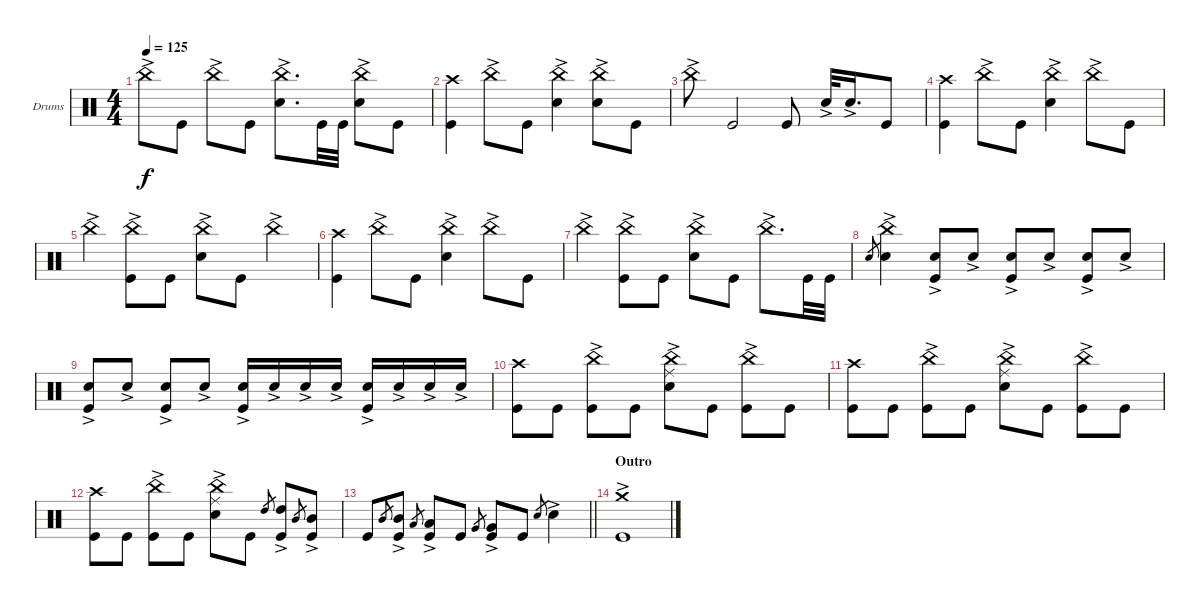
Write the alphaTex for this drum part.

\bracketExtendMode groupsimilarinstruments
\firstSystemTrackNameOrientation horizontal
\otherSystemsTrackNameOrientation horizontal
\track ("Drumkit" "Drums") {instrument percussion}
\staff {score}
\articulation defaults
\ts (4 4)
\tempo 125
\clef neutral
\ks c "China (hit)"{ac}.8{dy f} "Kick (hit)".8 "China (hit)"{ac}.8 "Kick (hit)".8
("China (hit)"{ac} "Snare (hit) 2"{ac}).8{d} "Kick (hit)".32 "Kick (hit)".32 ("China (hit)"{ac} "Snare (hit) 2"{ac}).8 "Kick (hit)".8 |
("Crash high (hit)" "Kick (hit)").4 "China (hit)"{ac}.8 "Kick (hit)".8 ("China (hit)"{ac} "Snare (hit) 2"{ac}).4 ("China (hit)"{ac} "Snare (hit) 2"{ac}).8 "Kick (hit)".8 |
"China (hit)"{ac}.8 "Kick (hit)".2 "Kick (hit)".8 "Snare (hit) 2"{ac}.32 "Snare (hit) 2"{ac}.16{d} "Kick (hit)".8 |
("Crash high (hit)" "Kick (hit)").4 "China (hit)"{ac}.8 "Kick (hit)".8 ("China (hit)"{ac} "Snare (hit) 2"{ac}).4 "China (hit)"{ac}.8 "Kick (hit)".8 |
"China (hit)"{ac}.4 ("China (hit)"{ac} "Kick (hit)").8 "Kick (hit)".8 ("China (hit)"{ac} "Snare (hit) 2"{ac}).8 "Kick (hit)".8 "China (hit)"{ac}.4 |
("Crash high (hit)" "Kick (hit)").4 "China (hit)"{ac}.8 "Kick (hit)".8 ("China (hit)"{ac} "Snare (hit) 2"{ac}).4 "China (hit)"{ac}.8 "Kick (hit)".8 |
"China (hit)"{ac}.4 ("China (hit)"{ac} "Kick (hit)").8 "Kick (hit)".8 ("China (hit)"{ac} "Snare (hit) 2"{ac}).8 "Kick (hit)".8 "China (hit)"{ac}.8{d} "Kick (hit)".32 "Kick (hit)".32 |
"Snare (hit) 2".8{gr} ("China (hit)"{ac} "Snare (hit) 2"{ac}).4 ("Snare (hit) 2"{ac} "Kick (hit)").8 "Snare (hit) 2"{ac}.8 ("Snare (hit) 2"{ac} "Kick (hit)").8 "Snare (hit) 2"{ac}.8 ("Snare (hit) 2"{ac} "Kick (hit)").8 "Snare (hit) 2"{ac}.8 |
("Snare (hit) 2"{ac} "Kick (hit)").8 "Snare (hit) 2"{ac}.8 ("Snare (hit) 2"{ac} "Kick (hit)").8 "Snare (hit) 2"{ac}.8 ("Snare (hit) 2"{ac} "Kick (hit)").16 "Snare (hit) 2"{ac}.16 "Snare (hit) 2"{ac}.16 "Snare (hit) 2"{ac}.16 ("Snare (hit) 2"{ac} "Kick (hit)").16 "Snare (hit) 2"{ac}.16 "Snare (hit) 2"{ac}.16 "Snare (hit) 2"{ac}.16 |
("Crash high (hit)" "Kick (hit)").8 "Kick (hit)".8 ("China (hit)"{ac} "Kick (hit)").8 "Kick (hit)".8 ("China (hit)"{ac} "Ride (middle)"{ac} "Snare (hit) 2"{ac}).8 "Kick (hit)".8 ("China (hit)"{ac} "Kick (hit)").8 "Kick (hit)".8 |
("Crash high (hit)" "Kick (hit)").8 "Kick (hit)".8 ("China (hit)"{ac} "Kick (hit)").8 "Kick (hit)".8 ("China (hit)"{ac} "Ride (middle)"{ac} "Snare (hit) 2"{ac}).8 "Kick (hit)".8 ("China (hit)"{ac} "Kick (hit)").8 "Kick (hit)".8 |
("Crash high (hit)" "Kick (hit)").8 "Kick (hit)".8 ("China (hit)"{ac} "Kick (hit)").8 "Kick (hit)".8 ("China (hit)"{ac} "Ride (middle)"{ac} "Snare (hit) 2"{ac}).8 "Kick (hit)".8 "High Tom (hit)".8{gr} ("Kick (hit)" "High Tom (hit)"{ac}).8 "Mid Tom (hit)".8{gr} ("Kick (hit)" "Mid Tom (hit)"{ac}).8 |
\barLineRight lightlight "Kick (hit)".8 "Mid Tom (hit)".8{gr}
("Kick (hit)" "Mid Tom (hit)"{ac}).8 "Low Tom (hit)".8{gr} ("Kick (hit)" "Low Tom (hit)"{ac}).8 "Kick (hit)".8 "Very Low Tom (hit)".8{gr} ("Kick (hit)" "Very Low Tom (hit)"{ac}).8 "Kick (hit)".8 "Snare (hit) 2".8{gr} "Snare (hit) 2"{ac}.4 |
\section ("" "Outro")
("Crash medium (hit)"{ac} "Kick (hit)").1
